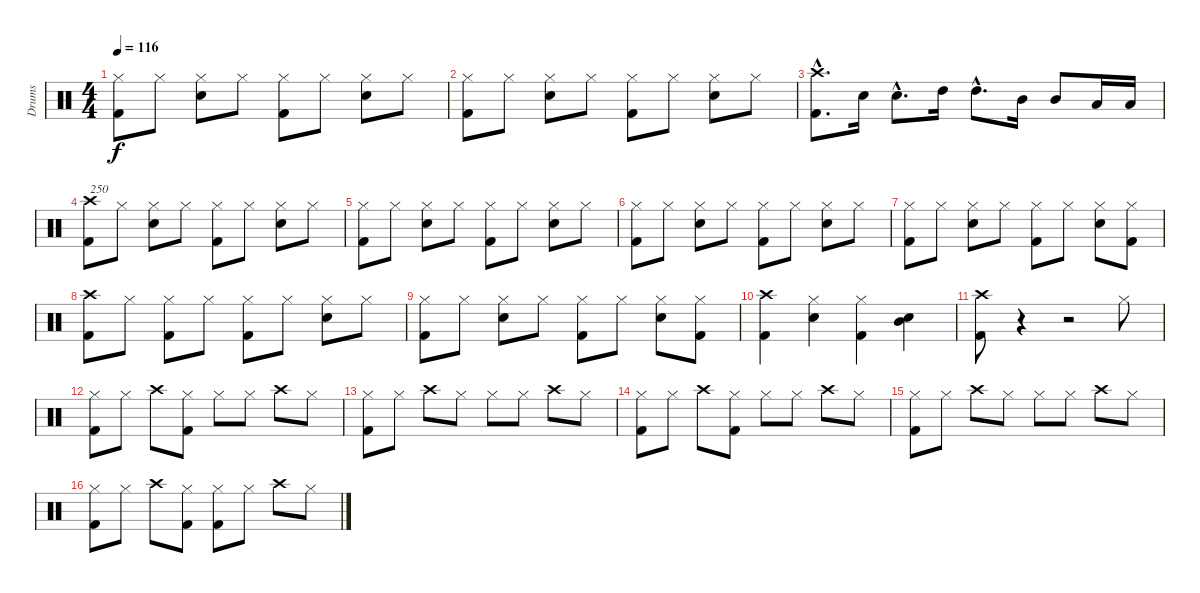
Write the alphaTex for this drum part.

\track ("Drums" "Drums") {instrument percussion}
\staff {score}
\articulation defaults
\ts (4 4)
\tempo 116
\clef neutral
\ks c
("Hi-Hat (closed)" "Kick (hit) 2").8{dy f} "Hi-Hat (closed)".8 ("Hi-Hat (closed)" "Snare (hit) 2").8 "Hi-Hat (closed)".8 ("Hi-Hat (closed)" "Kick (hit) 2").8 "Hi-Hat (closed)".8 ("Hi-Hat (closed)" "Snare (hit) 2").8 "Hi-Hat (closed)".8 |
("Hi-Hat (closed)" "Kick (hit) 2").8 "Hi-Hat (closed)".8 ("Hi-Hat (closed)" "Snare (hit) 2").8 "Hi-Hat (closed)".8 ("Hi-Hat (closed)" "Kick (hit) 2").8 "Hi-Hat (closed)".8 ("Hi-Hat (closed)" "Snare (hit) 2").8 "Hi-Hat (closed)".8 |
("Crash high (hit)"{hac} "Kick (hit) 2"{hac}).8{d} "Snare (hit) 2".16 "Snare (hit) 2"{hac}.8{d} "High Tom (hit)".16 "High Tom (hit)"{hac}.8{d} "Mid Tom (hit)".16 "Mid Tom (hit)".8 "Low Tom (hit)".16 "Low Tom (hit)".16 |
("Crash high (hit)" "Kick (hit) 2").8{txt "250"} "Hi-Hat (closed)".8 ("Hi-Hat (closed)" "Snare (hit) 2").8 "Hi-Hat (closed)".8 ("Hi-Hat (closed)" "Kick (hit) 2").8 "Hi-Hat (closed)".8 ("Hi-Hat (closed)" "Snare (hit) 2").8 "Hi-Hat (closed)".8 |
("Hi-Hat (closed)" "Kick (hit) 2").8 "Hi-Hat (closed)".8 ("Hi-Hat (closed)" "Snare (hit) 2").8 "Hi-Hat (closed)".8 ("Hi-Hat (closed)" "Kick (hit) 2").8 "Hi-Hat (closed)".8 ("Hi-Hat (closed)" "Snare (hit) 2").8 "Hi-Hat (closed)".8 |
("Hi-Hat (closed)" "Kick (hit) 2").8 "Hi-Hat (closed)".8 ("Hi-Hat (closed)" "Snare (hit) 2").8 "Hi-Hat (closed)".8 ("Hi-Hat (closed)" "Kick (hit) 2").8 "Hi-Hat (closed)".8 ("Hi-Hat (closed)" "Snare (hit) 2").8 "Hi-Hat (closed)".8 |
("Hi-Hat (closed)" "Kick (hit) 2").8 "Hi-Hat (closed)".8 ("Hi-Hat (closed)" "Snare (hit) 2").8 "Hi-Hat (closed)".8 ("Hi-Hat (closed)" "Kick (hit) 2").8 "Hi-Hat (closed)".8 ("Hi-Hat (closed)" "Snare (hit) 2").8 ("Hi-Hat (closed)" "Kick (hit) 2").8 |
("Crash high (hit)" "Kick (hit) 2").8 "Hi-Hat (closed)".8 ("Hi-Hat (closed)" "Kick (hit) 2").8 "Hi-Hat (closed)".8 ("Hi-Hat (closed)" "Kick (hit) 2").8 "Hi-Hat (closed)".8 ("Hi-Hat (closed)" "Snare (hit) 2").8 "Hi-Hat (closed)".8 |
("Hi-Hat (closed)" "Kick (hit) 2").8 "Hi-Hat (closed)".8 ("Hi-Hat (closed)" "Snare (hit) 2").8 "Hi-Hat (closed)".8 ("Hi-Hat (closed)" "Kick (hit) 2").8 "Hi-Hat (closed)".8 ("Hi-Hat (closed)" "Snare (hit) 2").8 ("Hi-Hat (closed)" "Kick (hit) 2").8 |
("Crash high (hit)" "Kick (hit) 2").4 ("Hi-Hat (closed)" "Snare (hit) 2").4 ("Hi-Hat (closed)" "Kick (hit) 2").4 ("Snare (hit) 2" "Mid Tom (hit)").4 |
("Crash high (hit)" "Kick (hit) 2").8 r.4 r.2 "Hi-Hat (closed)".8 |
("Hi-Hat (closed)" "Kick (hit) 2").8 "Hi-Hat (closed)".8 "Crash high (hit)".8 ("Hi-Hat (closed)" "Kick (hit) 2").8 "Hi-Hat (closed)".8 "Hi-Hat (closed)".8 "Crash high (hit)".8 "Hi-Hat (closed)".8 |
("Hi-Hat (closed)" "Kick (hit) 2").8 "Hi-Hat (closed)".8 "Crash high (hit)".8 "Hi-Hat (closed)".8 "Hi-Hat (closed)".8 "Hi-Hat (closed)".8 "Crash high (hit)".8 "Hi-Hat (closed)".8 |
("Hi-Hat (closed)" "Kick (hit) 2").8 "Hi-Hat (closed)".8 "Crash high (hit)".8 ("Hi-Hat (closed)" "Kick (hit) 2").8 "Hi-Hat (closed)".8 "Hi-Hat (closed)".8 "Crash high (hit)".8 "Hi-Hat (closed)".8 |
("Hi-Hat (closed)" "Kick (hit) 2").8 "Hi-Hat (closed)".8 "Crash high (hit)".8 "Hi-Hat (closed)".8 "Hi-Hat (closed)".8 "Hi-Hat (closed)".8 "Crash high (hit)".8 "Hi-Hat (closed)".8 |
("Hi-Hat (closed)" "Kick (hit) 2").8 "Hi-Hat (closed)".8 "Crash high (hit)".8 ("Hi-Hat (closed)" "Kick (hit) 2").8 ("Hi-Hat (closed)" "Kick (hit) 2").8 "Hi-Hat (closed)".8 "Crash high (hit)".8 "Hi-Hat (closed)".8
